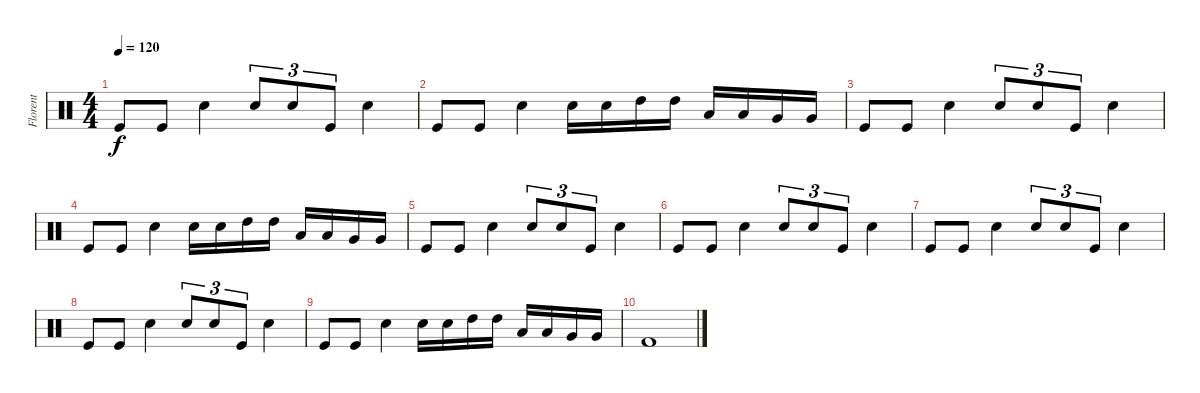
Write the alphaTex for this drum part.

\track ("Florent" "Florent") {instrument percussion}
\staff {score}
\articulation defaults
\ts (4 4)
\tempo 120
\clef neutral
\ks c "Kick (hit)".8{dy f} "Kick (hit)".8 "Snare (hit) 2".4 "Snare (hit) 2".8{tu (3 2)} "Snare (hit) 2".8{tu (3 2)} "Kick (hit)".8{tu (3 2)} "Snare (hit) 2".4
|
"Kick (hit)".8 "Kick (hit)".8 "Snare (hit) 2".4 "Snare (hit) 2".16 "Snare (hit) 2".16 "High Tom (hit)".16 "High Tom (hit)".16 "Low Tom (hit)".16 "Low Tom (hit)".16 "Very Low Tom (hit)".16 "Very Low Tom (hit)".16 |
"Kick (hit)".8 "Kick (hit)".8 "Snare (hit) 2".4 "Snare (hit) 2".8{tu (3 2)} "Snare (hit) 2".8{tu (3 2)} "Kick (hit)".8{tu (3 2)} "Snare (hit) 2".4 |
"Kick (hit)".8 "Kick (hit)".8 "Snare (hit) 2".4 "Snare (hit) 2".16 "Snare (hit) 2".16 "High Tom (hit)".16 "High Tom (hit)".16 "Low Tom (hit)".16 "Low Tom (hit)".16 "Very Low Tom (hit)".16 "Very Low Tom (hit)".16 |
"Kick (hit)".8 "Kick (hit)".8 "Snare (hit) 2".4 "Snare (hit) 2".8{tu (3 2)} "Snare (hit) 2".8{tu (3 2)} "Kick (hit)".8{tu (3 2)} "Snare (hit) 2".4 |
"Kick (hit)".8 "Kick (hit)".8 "Snare (hit) 2".4 "Snare (hit) 2".8{tu (3 2)} "Snare (hit) 2".8{tu (3 2)} "Kick (hit)".8{tu (3 2)} "Snare (hit) 2".4 |
"Kick (hit)".8 "Kick (hit)".8 "Snare (hit) 2".4 "Snare (hit) 2".8{tu (3 2)} "Snare (hit) 2".8{tu (3 2)} "Kick (hit)".8{tu (3 2)} "Snare (hit) 2".4 |
"Kick (hit)".8 "Kick (hit)".8 "Snare (hit) 2".4 "Snare (hit) 2".8{tu (3 2)} "Snare (hit) 2".8{tu (3 2)} "Kick (hit)".8{tu (3 2)} "Snare (hit) 2".4 |
"Kick (hit)".8 "Kick (hit)".8 "Snare (hit) 2".4 "Snare (hit) 2".16 "Snare (hit) 2".16 "High Tom (hit)".16 "High Tom (hit)".16 "Low Tom (hit)".16 "Low Tom (hit)".16 "Very Low Tom (hit)".16 "Very Low Tom (hit)".16 |
"Kick (hit) 2".1
